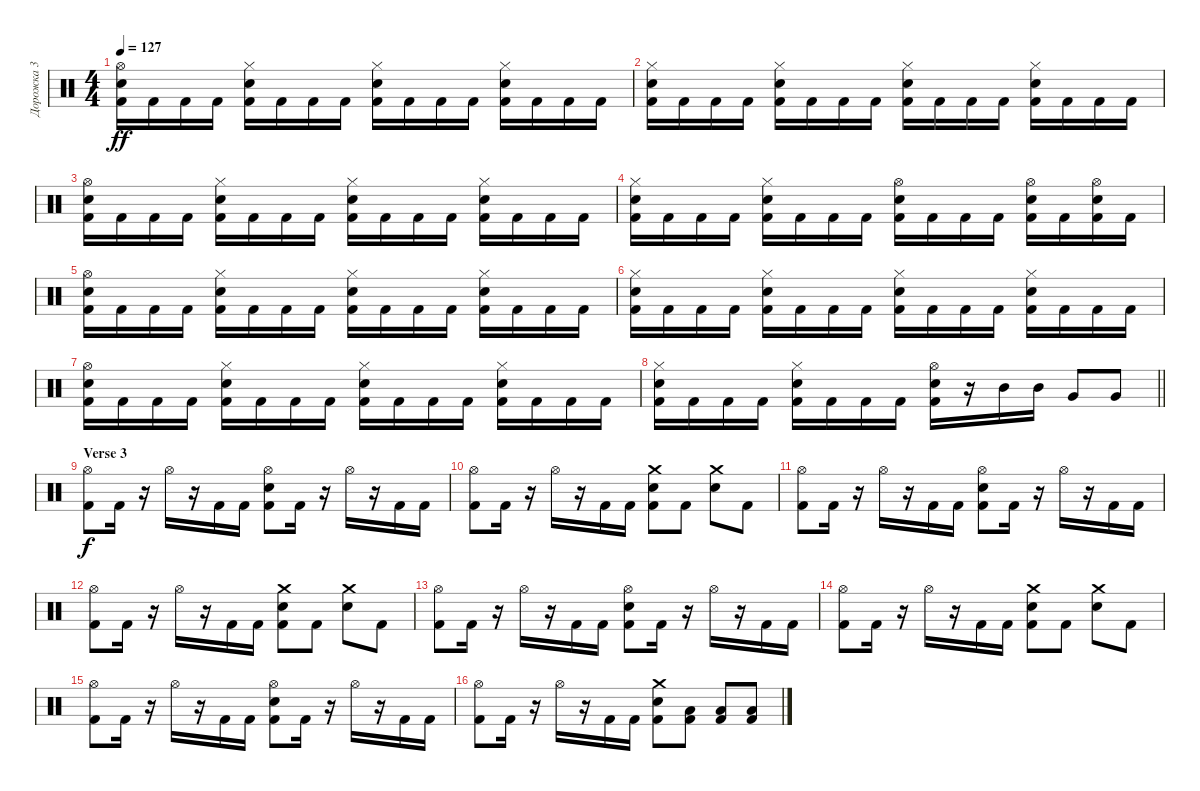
\track ("Дорожка 3" "Дорожка 3") {instrument percussion}
\staff {score}
\articulation defaults
\ts (4 4)
\tempo 127
\clef neutral
\ks c
("Hi-Hat (open)" "Electric Snare (hit)" "Kick (hit) 2").16{dy ff} "Kick (hit) 2".16 "Kick (hit) 2".16 "Kick (hit) 2".16 ("Hi-Hat (closed)" "Electric Snare (hit)" "Kick (hit) 2").16 "Kick (hit) 2".16 "Kick (hit) 2".16 "Kick (hit) 2".16 ("Hi-Hat (closed)" "Electric Snare (hit)" "Kick (hit) 2").16 "Kick (hit) 2".16 "Kick (hit) 2".16 "Kick (hit) 2".16 ("Hi-Hat (closed)" "Electric Snare (hit)" "Kick (hit) 2").16 "Kick (hit) 2".16 "Kick (hit) 2".16 "Kick (hit) 2".16 |
("Hi-Hat (closed)" "Electric Snare (hit)" "Kick (hit) 2").16 "Kick (hit) 2".16 "Kick (hit) 2".16 "Kick (hit) 2".16 ("Hi-Hat (closed)" "Electric Snare (hit)" "Kick (hit) 2").16 "Kick (hit) 2".16 "Kick (hit) 2".16 "Kick (hit) 2".16 ("Hi-Hat (closed)" "Electric Snare (hit)" "Kick (hit) 2").16 "Kick (hit) 2".16 "Kick (hit) 2".16 "Kick (hit) 2".16 ("Hi-Hat (closed)" "Electric Snare (hit)" "Kick (hit) 2").16 "Kick (hit) 2".16 "Kick (hit) 2".16 "Kick (hit) 2".16 |
("Hi-Hat (open)" "Electric Snare (hit)" "Kick (hit) 2").16 "Kick (hit) 2".16 "Kick (hit) 2".16 "Kick (hit) 2".16 ("Hi-Hat (closed)" "Electric Snare (hit)" "Kick (hit) 2").16 "Kick (hit) 2".16 "Kick (hit) 2".16 "Kick (hit) 2".16 ("Hi-Hat (closed)" "Electric Snare (hit)" "Kick (hit) 2").16 "Kick (hit) 2".16 "Kick (hit) 2".16 "Kick (hit) 2".16 ("Hi-Hat (closed)" "Electric Snare (hit)" "Kick (hit) 2").16 "Kick (hit) 2".16 "Kick (hit) 2".16 "Kick (hit) 2".16 |
("Hi-Hat (closed)" "Electric Snare (hit)" "Kick (hit) 2").16 "Kick (hit) 2".16 "Kick (hit) 2".16 "Kick (hit) 2".16 ("Hi-Hat (closed)" "Electric Snare (hit)" "Kick (hit) 2").16 "Kick (hit) 2".16 "Kick (hit) 2".16 "Kick (hit) 2".16 ("Hi-Hat (open)" "Electric Snare (hit)" "Kick (hit) 2").16 "Kick (hit) 2".16 "Kick (hit) 2".16 "Kick (hit) 2".16 ("Hi-Hat (open)" "Electric Snare (hit)" "Kick (hit) 2").16 "Kick (hit) 2".16 ("Hi-Hat (open)" "Electric Snare (hit)" "Kick (hit) 2").16 "Kick (hit) 2".16 |
("Hi-Hat (open)" "Electric Snare (hit)" "Kick (hit) 2").16 "Kick (hit) 2".16 "Kick (hit) 2".16 "Kick (hit) 2".16 ("Hi-Hat (closed)" "Electric Snare (hit)" "Kick (hit) 2").16 "Kick (hit) 2".16 "Kick (hit) 2".16 "Kick (hit) 2".16 ("Hi-Hat (closed)" "Electric Snare (hit)" "Kick (hit) 2").16 "Kick (hit) 2".16 "Kick (hit) 2".16 "Kick (hit) 2".16 ("Hi-Hat (closed)" "Electric Snare (hit)" "Kick (hit) 2").16 "Kick (hit) 2".16 "Kick (hit) 2".16 "Kick (hit) 2".16 |
("Hi-Hat (closed)" "Electric Snare (hit)" "Kick (hit) 2").16 "Kick (hit) 2".16 "Kick (hit) 2".16 "Kick (hit) 2".16 ("Hi-Hat (closed)" "Electric Snare (hit)" "Kick (hit) 2").16 "Kick (hit) 2".16 "Kick (hit) 2".16 "Kick (hit) 2".16 ("Hi-Hat (closed)" "Electric Snare (hit)" "Kick (hit) 2").16 "Kick (hit) 2".16 "Kick (hit) 2".16 "Kick (hit) 2".16 ("Hi-Hat (closed)" "Electric Snare (hit)" "Kick (hit) 2").16 "Kick (hit) 2".16 "Kick (hit) 2".16 "Kick (hit) 2".16 |
("Hi-Hat (open)" "Electric Snare (hit)" "Kick (hit) 2").16 "Kick (hit) 2".16 "Kick (hit) 2".16 "Kick (hit) 2".16 ("Hi-Hat (closed)" "Electric Snare (hit)" "Kick (hit) 2").16 "Kick (hit) 2".16 "Kick (hit) 2".16 "Kick (hit) 2".16 ("Hi-Hat (closed)" "Electric Snare (hit)" "Kick (hit) 2").16 "Kick (hit) 2".16 "Kick (hit) 2".16 "Kick (hit) 2".16 ("Hi-Hat (closed)" "Electric Snare (hit)" "Kick (hit) 2").16 "Kick (hit) 2".16 "Kick (hit) 2".16 "Kick (hit) 2".16 |
\barLineRight lightlight
("Hi-Hat (closed)" "Electric Snare (hit)" "Kick (hit) 2").16 "Kick (hit) 2".16 "Kick (hit) 2".16 "Kick (hit) 2".16 ("Hi-Hat (closed)" "Electric Snare (hit)" "Kick (hit) 2").16 "Kick (hit) 2".16 "Kick (hit) 2".16 "Kick (hit) 2".16 ("Hi-Hat (open)" "Electric Snare (hit)" "Kick (hit) 2").16 r.16 "Mid Tom (hit)".16 "Mid Tom (hit)".16 "Very Low Tom (hit)".8 "Very Low Tom (hit)".8 |
\section ("" "Verse 3")
("Hi-Hat (open)" "Kick (hit) 2").8{dy f} "Kick (hit) 2".16 r.16 "Hi-Hat (open)".16 r.16 "Kick (hit) 2".16 "Kick (hit) 2".16 ("Hi-Hat (open)" "Electric Snare (hit)" "Kick (hit) 2").8 "Kick (hit) 2".16 r.16 "Hi-Hat (open)".16 r.16 "Kick (hit) 2".16 "Kick (hit) 2".16 |
("Hi-Hat (open)" "Kick (hit) 2").8 "Kick (hit) 2".16 r.16 "Hi-Hat (open)".16 r.16 "Kick (hit) 2".16 "Kick (hit) 2".16 ("Crash medium (hit)" "Electric Snare (hit)" "Kick (hit) 2").8 "Kick (hit) 2".8 ("Crash medium (hit)" "Electric Snare (hit)").8 "Kick (hit) 2".8 |
("Hi-Hat (open)" "Kick (hit) 2").8 "Kick (hit) 2".16 r.16 "Hi-Hat (open)".16 r.16 "Kick (hit) 2".16 "Kick (hit) 2".16 ("Hi-Hat (open)" "Electric Snare (hit)" "Kick (hit) 2").8 "Kick (hit) 2".16 r.16 "Hi-Hat (open)".16 r.16 "Kick (hit) 2".16 "Kick (hit) 2".16 |
("Hi-Hat (open)" "Kick (hit) 2").8 "Kick (hit) 2".16 r.16 "Hi-Hat (open)".16 r.16 "Kick (hit) 2".16 "Kick (hit) 2".16 ("Crash medium (hit)" "Electric Snare (hit)" "Kick (hit) 2").8 "Kick (hit) 2".8 ("Crash medium (hit)" "Electric Snare (hit)").8 "Kick (hit) 2".8 |
("Hi-Hat (open)" "Kick (hit) 2").8 "Kick (hit) 2".16 r.16 "Hi-Hat (open)".16 r.16 "Kick (hit) 2".16 "Kick (hit) 2".16 ("Hi-Hat (open)" "Electric Snare (hit)" "Kick (hit) 2").8 "Kick (hit) 2".16 r.16 "Hi-Hat (open)".16 r.16 "Kick (hit) 2".16 "Kick (hit) 2".16 |
("Hi-Hat (open)" "Kick (hit) 2").8 "Kick (hit) 2".16 r.16 "Hi-Hat (open)".16 r.16 "Kick (hit) 2".16 "Kick (hit) 2".16 ("Crash medium (hit)" "Electric Snare (hit)" "Kick (hit) 2").8 "Kick (hit) 2".8 ("Crash medium (hit)" "Electric Snare (hit)").8 "Kick (hit) 2".8 |
("Hi-Hat (open)" "Kick (hit) 2").8 "Kick (hit) 2".16 r.16 "Hi-Hat (open)".16 r.16 "Kick (hit) 2".16 "Kick (hit) 2".16 ("Hi-Hat (open)" "Electric Snare (hit)" "Kick (hit) 2").8 "Kick (hit) 2".16 r.16 "Hi-Hat (open)".16 r.16 "Kick (hit) 2".16 "Kick (hit) 2".16 |
("Hi-Hat (open)" "Kick (hit) 2").8 "Kick (hit) 2".16 r.16 "Hi-Hat (open)".16 r.16 "Kick (hit) 2".16 "Kick (hit) 2".16 ("Crash medium (hit)" "Electric Snare (hit)" "Kick (hit) 2").8 ("Low Tom (hit)" "Kick (hit) 2").8 ("Low Tom (hit)" "Kick (hit) 2").8 ("Low Tom (hit)" "Kick (hit) 2").8
